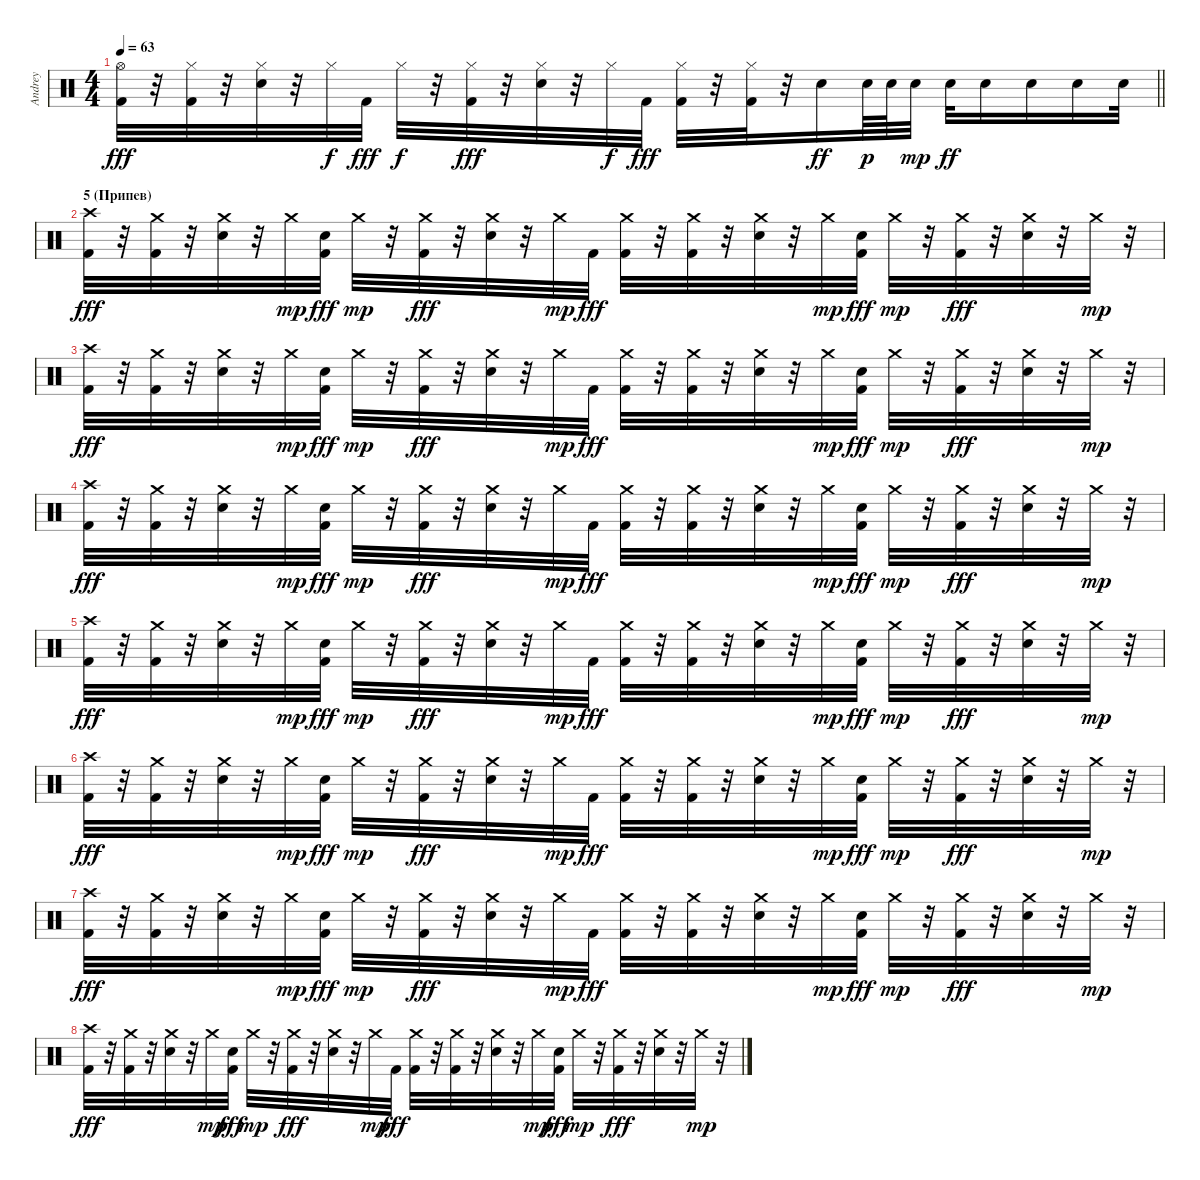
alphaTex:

\track ("Andrey" "Andrey") {instrument percussion}
\staff {score}
\articulation defaults
\ts (4 4)
\tempo 63
\clef neutral
\barLineRight lightlight
\ks c
("Hi-Hat (open)" "Kick (hit) 2").32{dy fff} r.32 ("Hi-Hat (closed)" "Kick (hit) 2").32 r.32 ("Hi-Hat (closed)" "Snare (hit) 2").32 r.32 "Hi-Hat (closed)".32{dy f} "Kick (hit) 2".32{dy fff} "Hi-Hat (closed)".32{dy f} r.32 ("Hi-Hat (closed)" "Kick (hit) 2").32{dy fff} r.32 ("Hi-Hat (closed)" "Snare (hit) 2").32 r.32 "Hi-Hat (closed)".32{dy f} "Kick (hit) 2".32{dy fff} ("Hi-Hat (closed)" "Kick (hit) 2").32 r.32 ("Hi-Hat (closed)" "Kick (hit) 2").32 r.32 "Electric Snare (hit)".16{dy ff} "Electric Snare (hit)".64{dy p} "Electric Snare (hit)".64 "Electric Snare (hit)".32{dy mp} "Electric Snare (hit)".32{dy ff} "Electric Snare (hit)".16 "Electric Snare (hit)".16 "Electric Snare (hit)".16 "Electric Snare (hit)".32 |
\section ("" "5 (Припев)")
("Crash high (hit)" "Kick (hit) 2").32{dy fff} r.32 ("Crash medium (hit)" "Kick (hit) 2").32 r.32 ("Crash medium (hit)" "Snare (hit) 2").32 r.32 "Crash medium (hit)".32{dy mp} ("Snare (hit) 2" "Kick (hit) 2").32{dy fff} "Crash medium (hit)".32{dy mp} r.32 ("Crash medium (hit)" "Kick (hit) 2").32{dy fff} r.32 ("Crash medium (hit)" "Snare (hit) 2").32 r.32 "Crash medium (hit)".32{dy mp} "Kick (hit) 2".32{dy fff} ("Crash medium (hit)" "Kick (hit) 2").32 r.32 ("Crash medium (hit)" "Kick (hit) 2").32 r.32 ("Crash medium (hit)" "Snare (hit) 2").32 r.32 "Crash medium (hit)".32{dy mp} ("Snare (hit) 2" "Kick (hit) 2").32{dy fff} "Crash medium (hit)".32{dy mp} r.32 ("Crash medium (hit)" "Kick (hit) 2").32{dy fff} r.32 ("Crash medium (hit)" "Snare (hit) 2").32 r.32 "Crash medium (hit)".32{dy mp} r.32 |
("Crash high (hit)" "Kick (hit) 2").32{dy fff} r.32 ("Crash medium (hit)" "Kick (hit) 2").32 r.32 ("Crash medium (hit)" "Snare (hit) 2").32 r.32 "Crash medium (hit)".32{dy mp} ("Snare (hit) 2" "Kick (hit) 2").32{dy fff} "Crash medium (hit)".32{dy mp} r.32 ("Crash medium (hit)" "Kick (hit) 2").32{dy fff} r.32 ("Crash medium (hit)" "Snare (hit) 2").32 r.32 "Crash medium (hit)".32{dy mp} "Kick (hit) 2".32{dy fff} ("Crash medium (hit)" "Kick (hit) 2").32 r.32 ("Crash medium (hit)" "Kick (hit) 2").32 r.32 ("Crash medium (hit)" "Snare (hit) 2").32 r.32 "Crash medium (hit)".32{dy mp} ("Snare (hit) 2" "Kick (hit) 2").32{dy fff} "Crash medium (hit)".32{dy mp} r.32 ("Crash medium (hit)" "Kick (hit) 2").32{dy fff} r.32 ("Crash medium (hit)" "Snare (hit) 2").32 r.32 "Crash medium (hit)".32{dy mp} r.32 |
("Crash high (hit)" "Kick (hit) 2").32{dy fff} r.32 ("Crash medium (hit)" "Kick (hit) 2").32 r.32 ("Crash medium (hit)" "Snare (hit) 2").32 r.32 "Crash medium (hit)".32{dy mp} ("Snare (hit) 2" "Kick (hit) 2").32{dy fff} "Crash medium (hit)".32{dy mp} r.32 ("Crash medium (hit)" "Kick (hit) 2").32{dy fff} r.32 ("Crash medium (hit)" "Snare (hit) 2").32 r.32 "Crash medium (hit)".32{dy mp} "Kick (hit) 2".32{dy fff} ("Crash medium (hit)" "Kick (hit) 2").32 r.32 ("Crash medium (hit)" "Kick (hit) 2").32 r.32 ("Crash medium (hit)" "Snare (hit) 2").32 r.32 "Crash medium (hit)".32{dy mp} ("Snare (hit) 2" "Kick (hit) 2").32{dy fff} "Crash medium (hit)".32{dy mp} r.32 ("Crash medium (hit)" "Kick (hit) 2").32{dy fff} r.32 ("Crash medium (hit)" "Snare (hit) 2").32 r.32 "Crash medium (hit)".32{dy mp} r.32 |
("Crash high (hit)" "Kick (hit) 2").32{dy fff} r.32 ("Crash medium (hit)" "Kick (hit) 2").32 r.32 ("Crash medium (hit)" "Snare (hit) 2").32 r.32 "Crash medium (hit)".32{dy mp} ("Snare (hit) 2" "Kick (hit) 2").32{dy fff} "Crash medium (hit)".32{dy mp} r.32 ("Crash medium (hit)" "Kick (hit) 2").32{dy fff} r.32 ("Crash medium (hit)" "Snare (hit) 2").32 r.32 "Crash medium (hit)".32{dy mp} "Kick (hit) 2".32{dy fff} ("Crash medium (hit)" "Kick (hit) 2").32 r.32 ("Crash medium (hit)" "Kick (hit) 2").32 r.32 ("Crash medium (hit)" "Snare (hit) 2").32 r.32 "Crash medium (hit)".32{dy mp} ("Snare (hit) 2" "Kick (hit) 2").32{dy fff} "Crash medium (hit)".32{dy mp} r.32 ("Crash medium (hit)" "Kick (hit) 2").32{dy fff} r.32 ("Crash medium (hit)" "Snare (hit) 2").32 r.32 "Crash medium (hit)".32{dy mp} r.32 |
("Crash high (hit)" "Kick (hit) 2").32{dy fff} r.32 ("Crash medium (hit)" "Kick (hit) 2").32 r.32 ("Crash medium (hit)" "Snare (hit) 2").32 r.32 "Crash medium (hit)".32{dy mp} ("Snare (hit) 2" "Kick (hit) 2").32{dy fff} "Crash medium (hit)".32{dy mp} r.32 ("Crash medium (hit)" "Kick (hit) 2").32{dy fff} r.32 ("Crash medium (hit)" "Snare (hit) 2").32 r.32 "Crash medium (hit)".32{dy mp} "Kick (hit) 2".32{dy fff} ("Crash medium (hit)" "Kick (hit) 2").32 r.32 ("Crash medium (hit)" "Kick (hit) 2").32 r.32 ("Crash medium (hit)" "Snare (hit) 2").32 r.32 "Crash medium (hit)".32{dy mp} ("Snare (hit) 2" "Kick (hit) 2").32{dy fff} "Crash medium (hit)".32{dy mp} r.32 ("Crash medium (hit)" "Kick (hit) 2").32{dy fff} r.32 ("Crash medium (hit)" "Snare (hit) 2").32 r.32 "Crash medium (hit)".32{dy mp} r.32 |
("Crash high (hit)" "Kick (hit) 2").32{dy fff} r.32 ("Crash medium (hit)" "Kick (hit) 2").32 r.32 ("Crash medium (hit)" "Snare (hit) 2").32 r.32 "Crash medium (hit)".32{dy mp} ("Snare (hit) 2" "Kick (hit) 2").32{dy fff} "Crash medium (hit)".32{dy mp} r.32 ("Crash medium (hit)" "Kick (hit) 2").32{dy fff} r.32 ("Crash medium (hit)" "Snare (hit) 2").32 r.32 "Crash medium (hit)".32{dy mp} "Kick (hit) 2".32{dy fff} ("Crash medium (hit)" "Kick (hit) 2").32 r.32 ("Crash medium (hit)" "Kick (hit) 2").32 r.32 ("Crash medium (hit)" "Snare (hit) 2").32 r.32 "Crash medium (hit)".32{dy mp} ("Snare (hit) 2" "Kick (hit) 2").32{dy fff} "Crash medium (hit)".32{dy mp} r.32 ("Crash medium (hit)" "Kick (hit) 2").32{dy fff} r.32 ("Crash medium (hit)" "Snare (hit) 2").32 r.32 "Crash medium (hit)".32{dy mp} r.32 |
("Crash high (hit)" "Kick (hit) 2").32{dy fff} r.32 ("Crash medium (hit)" "Kick (hit) 2").32 r.32 ("Crash medium (hit)" "Snare (hit) 2").32 r.32 "Crash medium (hit)".32{dy mp} ("Snare (hit) 2" "Kick (hit) 2").32{dy fff} "Crash medium (hit)".32{dy mp} r.32 ("Crash medium (hit)" "Kick (hit) 2").32{dy fff} r.32 ("Crash medium (hit)" "Snare (hit) 2").32 r.32 "Crash medium (hit)".32{dy mp} "Kick (hit) 2".32{dy fff} ("Crash medium (hit)" "Kick (hit) 2").32 r.32 ("Crash medium (hit)" "Kick (hit) 2").32 r.32 ("Crash medium (hit)" "Snare (hit) 2").32 r.32 "Crash medium (hit)".32{dy mp} ("Snare (hit) 2" "Kick (hit) 2").32{dy fff} "Crash medium (hit)".32{dy mp} r.32 ("Crash medium (hit)" "Kick (hit) 2").32{dy fff} r.32 ("Crash medium (hit)" "Snare (hit) 2").32 r.32 "Crash medium (hit)".32{dy mp} r.32
